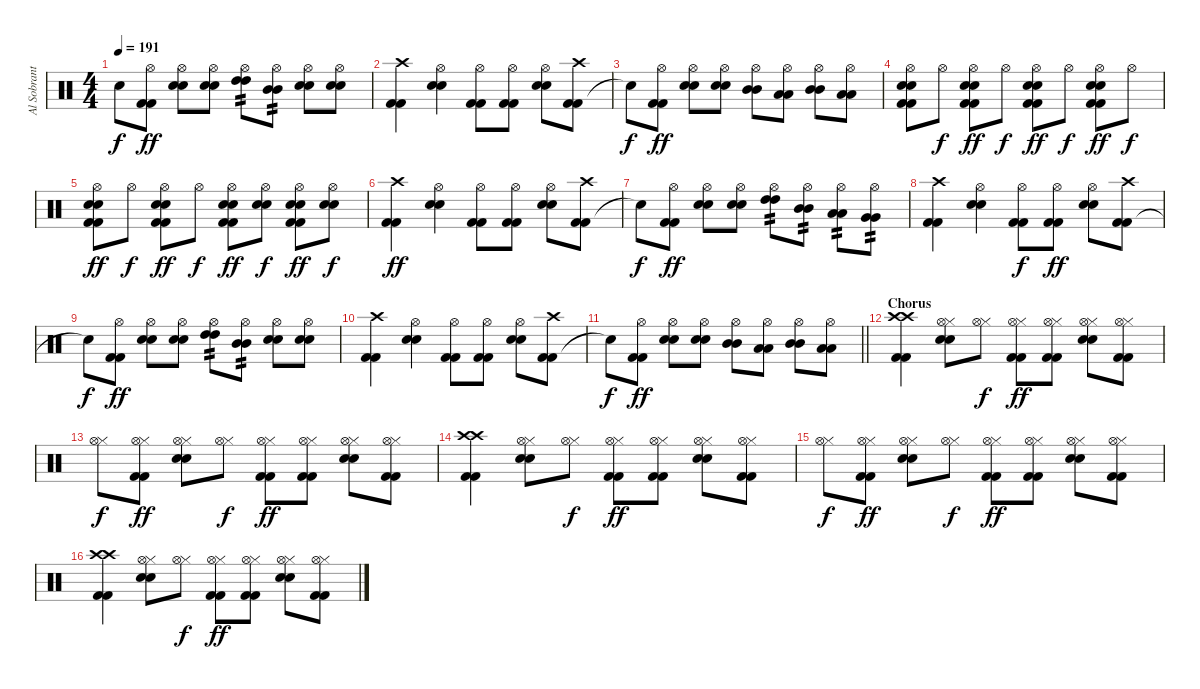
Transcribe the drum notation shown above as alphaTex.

\track ("Al Sobrante (Drums)" "Al Sobrant") {instrument percussion}
\staff {score}
\articulation defaults
\ts (4 4)
\tempo 191
\clef neutral
\ks c "Snare (hit)"{t}.8{dy f}
("Kick (hit) 2" "Kick (hit) 2" "Hi-Hat (open)").8{dy ff} ("Electric Snare (hit)" "Electric Snare (hit)" "Hi-Hat (open)").8 ("Electric Snare (hit)" "Electric Snare (hit)" "Hi-Hat (open)").8 ("High Tom (hit)" "High Tom (hit)" "Hi-Hat (open)").8{tp 2} ("Mid Tom (hit)" "Mid Tom (hit)" "Hi-Hat (open)").8{tp 2} ("Electric Snare (hit)" "Electric Snare (hit)" "Hi-Hat (open)").8 ("Electric Snare (hit)" "Electric Snare (hit)" "Hi-Hat (open)").8 |
("Kick (hit) 2" "Kick (hit) 2" "Crash high (hit)").4 ("Electric Snare (hit)" "Electric Snare (hit)" "Hi-Hat (open)").4 ("Kick (hit) 2" "Kick (hit) 2" "Hi-Hat (open)").8 ("Kick (hit) 2" "Kick (hit) 2" "Hi-Hat (open)").8 ("Electric Snare (hit)" "Electric Snare (hit)" "Hi-Hat (open)").8 ("Kick (hit) 2" "Kick (hit) 2" "Crash high (hit)").8 |
"Snare (hit)"{t}.8{dy f} ("Kick (hit) 2" "Kick (hit) 2" "Hi-Hat (open)").8{dy ff} ("Electric Snare (hit)" "Electric Snare (hit)" "Hi-Hat (open)").8 ("Electric Snare (hit)" "Electric Snare (hit)" "Hi-Hat (open)").8 ("Mid Tom (hit)" "Mid Tom (hit)" "Hi-Hat (open)").8 ("Low Tom (hit)" "Low Tom (hit)" "Hi-Hat (open)").8 ("Mid Tom (hit)" "Mid Tom (hit)" "Hi-Hat (open)").8 ("Low Tom (hit)" "Low Tom (hit)" "Hi-Hat (open)").8 |
("Kick (hit) 2" "Kick (hit) 2" "Electric Snare (hit)" "Electric Snare (hit)" "Hi-Hat (open)").8 "Hi-Hat (open)".8{dy f} ("Kick (hit) 2" "Kick (hit) 2" "Electric Snare (hit)" "Electric Snare (hit)" "Hi-Hat (open)").8{dy ff} "Hi-Hat (open)".8{dy f} ("Kick (hit) 2" "Kick (hit) 2" "Electric Snare (hit)" "Electric Snare (hit)" "Hi-Hat (open)").8{dy ff} "Hi-Hat (open)".8{dy f} ("Kick (hit) 2" "Kick (hit) 2" "Electric Snare (hit)" "Electric Snare (hit)" "Hi-Hat (open)").8{dy ff} "Hi-Hat (open)".8{dy f} |
("Kick (hit) 2" "Kick (hit) 2" "Electric Snare (hit)" "Electric Snare (hit)" "Hi-Hat (open)").8{dy ff} "Hi-Hat (open)".8{dy f} ("Kick (hit) 2" "Kick (hit) 2" "Electric Snare (hit)" "Electric Snare (hit)" "Hi-Hat (open)").8{dy ff} "Hi-Hat (open)".8{dy f} ("Kick (hit) 2" "Kick (hit) 2" "Electric Snare (hit)" "Electric Snare (hit)" "Hi-Hat (open)").8{dy ff} ("Electric Snare (hit)" "Electric Snare (hit)" "Hi-Hat (open)").8{dy f} ("Kick (hit) 2" "Kick (hit) 2" "Electric Snare (hit)" "Electric Snare (hit)" "Hi-Hat (open)").8{dy ff} ("Electric Snare (hit)" "Electric Snare (hit)" "Hi-Hat (open)").8{dy f} |
("Kick (hit) 2" "Kick (hit) 2" "Crash high (hit)").4{dy ff} ("Electric Snare (hit)" "Electric Snare (hit)" "Hi-Hat (open)").4 ("Kick (hit) 2" "Kick (hit) 2" "Hi-Hat (open)").8 ("Kick (hit) 2" "Kick (hit) 2" "Hi-Hat (open)").8 ("Electric Snare (hit)" "Electric Snare (hit)" "Hi-Hat (open)").8 ("Kick (hit) 2" "Kick (hit) 2" "Crash high (hit)").8 |
"Snare (hit)"{t}.8{dy f} ("Kick (hit) 2" "Kick (hit) 2" "Hi-Hat (open)").8{dy ff} ("Electric Snare (hit)" "Electric Snare (hit)" "Hi-Hat (open)").8 ("Electric Snare (hit)" "Electric Snare (hit)" "Hi-Hat (open)").8 ("High Tom (hit)" "High Tom (hit)" "Hi-Hat (open)").8{tp 2} ("Mid Tom (hit)" "Mid Tom (hit)" "Hi-Hat (open)").8{tp 2} ("Low Tom (hit)" "Low Tom (hit)" "Hi-Hat (open)").8{tp 2} ("Very Low Tom (hit)" "Very Low Tom (hit)" "Hi-Hat (open)").8{tp 2} |
("Kick (hit) 2" "Kick (hit) 2" "Crash high (hit)").4 ("Electric Snare (hit)" "Electric Snare (hit)" "Hi-Hat (open)").4 ("Kick (hit) 2" "Kick (hit) 2" "Hi-Hat (open)").8{dy f} ("Kick (hit) 2" "Kick (hit) 2" "Hi-Hat (open)").8{dy ff} ("Electric Snare (hit)" "Electric Snare (hit)" "Hi-Hat (open)").8 ("Kick (hit) 2" "Kick (hit) 2" "Crash high (hit)").8 |
"Snare (hit)"{t}.8{dy f} ("Kick (hit) 2" "Kick (hit) 2" "Hi-Hat (open)").8{dy ff} ("Electric Snare (hit)" "Electric Snare (hit)" "Hi-Hat (open)").8 ("Electric Snare (hit)" "Electric Snare (hit)" "Hi-Hat (open)").8 ("High Tom (hit)" "High Tom (hit)" "Hi-Hat (open)").8{tp 2} ("Mid Tom (hit)" "Mid Tom (hit)" "Hi-Hat (open)").8{tp 2} ("Electric Snare (hit)" "Electric Snare (hit)" "Hi-Hat (open)").8 ("Electric Snare (hit)" "Electric Snare (hit)" "Hi-Hat (open)").8 |
("Kick (hit) 2" "Kick (hit) 2" "Crash high (hit)").4 ("Electric Snare (hit)" "Electric Snare (hit)" "Hi-Hat (open)").4 ("Kick (hit) 2" "Kick (hit) 2" "Hi-Hat (open)").8 ("Kick (hit) 2" "Kick (hit) 2" "Hi-Hat (open)").8 ("Electric Snare (hit)" "Electric Snare (hit)" "Hi-Hat (open)").8 ("Kick (hit) 2" "Kick (hit) 2" "Crash high (hit)").8 |
\barLineRight lightlight "Snare (hit)"{t}.8{dy f}
("Kick (hit) 2" "Kick (hit) 2" "Hi-Hat (open)").8{dy ff} ("Electric Snare (hit)" "Electric Snare (hit)" "Hi-Hat (open)").8 ("Electric Snare (hit)" "Electric Snare (hit)" "Hi-Hat (open)").8 ("Mid Tom (hit)" "Mid Tom (hit)" "Hi-Hat (open)").8 ("Low Tom (hit)" "Low Tom (hit)" "Hi-Hat (open)").8 ("Mid Tom (hit)" "Mid Tom (hit)" "Hi-Hat (open)").8 ("Low Tom (hit)" "Low Tom (hit)" "Hi-Hat (open)").8 |
\section ("" "Chorus")
("Kick (hit) 2" "Kick (hit) 2" "Crash high (hit)" "Crash high (hit)").4 ("Electric Snare (hit)" "Electric Snare (hit)" "Hi-Hat (closed)" "Hi-Hat (open)").8 ("Hi-Hat (closed)" "Hi-Hat (open)").8{dy f} ("Kick (hit) 2" "Kick (hit) 2" "Hi-Hat (closed)" "Hi-Hat (open)").8{dy ff} ("Kick (hit) 2" "Kick (hit) 2" "Hi-Hat (closed)" "Hi-Hat (open)").8 ("Electric Snare (hit)" "Electric Snare (hit)" "Hi-Hat (closed)" "Hi-Hat (open)").8 ("Kick (hit) 2" "Kick (hit) 2" "Hi-Hat (closed)" "Hi-Hat (open)").8 |
("Hi-Hat (closed)" "Hi-Hat (open)").8{dy f} ("Kick (hit) 2" "Kick (hit) 2" "Hi-Hat (closed)" "Hi-Hat (open)").8{dy ff} ("Electric Snare (hit)" "Electric Snare (hit)" "Hi-Hat (closed)" "Hi-Hat (open)").8 ("Hi-Hat (closed)" "Hi-Hat (open)").8{dy f} ("Kick (hit) 2" "Kick (hit) 2" "Hi-Hat (closed)" "Hi-Hat (open)").8{dy ff} ("Kick (hit) 2" "Kick (hit) 2" "Hi-Hat (closed)" "Hi-Hat (open)").8 ("Electric Snare (hit)" "Electric Snare (hit)" "Hi-Hat (closed)" "Hi-Hat (open)").8 ("Kick (hit) 2" "Kick (hit) 2" "Hi-Hat (closed)" "Hi-Hat (open)").8 |
("Kick (hit) 2" "Kick (hit) 2" "Crash high (hit)" "Crash high (hit)").4 ("Electric Snare (hit)" "Electric Snare (hit)" "Hi-Hat (closed)" "Hi-Hat (open)").8 ("Hi-Hat (closed)" "Hi-Hat (open)").8{dy f} ("Kick (hit) 2" "Kick (hit) 2" "Hi-Hat (closed)" "Hi-Hat (open)").8{dy ff} ("Kick (hit) 2" "Kick (hit) 2" "Hi-Hat (closed)" "Hi-Hat (open)").8 ("Electric Snare (hit)" "Electric Snare (hit)" "Hi-Hat (closed)" "Hi-Hat (open)").8 ("Kick (hit) 2" "Kick (hit) 2" "Hi-Hat (closed)" "Hi-Hat (open)").8 |
("Hi-Hat (closed)" "Hi-Hat (open)").8{dy f} ("Kick (hit) 2" "Kick (hit) 2" "Hi-Hat (closed)" "Hi-Hat (open)").8{dy ff} ("Electric Snare (hit)" "Electric Snare (hit)" "Hi-Hat (closed)" "Hi-Hat (open)").8 ("Hi-Hat (closed)" "Hi-Hat (open)").8{dy f} ("Kick (hit) 2" "Kick (hit) 2" "Hi-Hat (closed)" "Hi-Hat (open)").8{dy ff} ("Kick (hit) 2" "Kick (hit) 2" "Hi-Hat (closed)" "Hi-Hat (open)").8 ("Electric Snare (hit)" "Electric Snare (hit)" "Hi-Hat (closed)" "Hi-Hat (open)").8 ("Kick (hit) 2" "Kick (hit) 2" "Hi-Hat (closed)" "Hi-Hat (open)").8 |
("Kick (hit) 2" "Kick (hit) 2" "Crash high (hit)" "Crash high (hit)").4 ("Electric Snare (hit)" "Electric Snare (hit)" "Hi-Hat (closed)" "Hi-Hat (open)").8 ("Hi-Hat (closed)" "Hi-Hat (open)").8{dy f} ("Kick (hit) 2" "Kick (hit) 2" "Hi-Hat (closed)" "Hi-Hat (open)").8{dy ff} ("Kick (hit) 2" "Kick (hit) 2" "Hi-Hat (closed)" "Hi-Hat (open)").8 ("Electric Snare (hit)" "Electric Snare (hit)" "Hi-Hat (closed)" "Hi-Hat (open)").8 ("Kick (hit) 2" "Kick (hit) 2" "Hi-Hat (closed)" "Hi-Hat (open)").8
